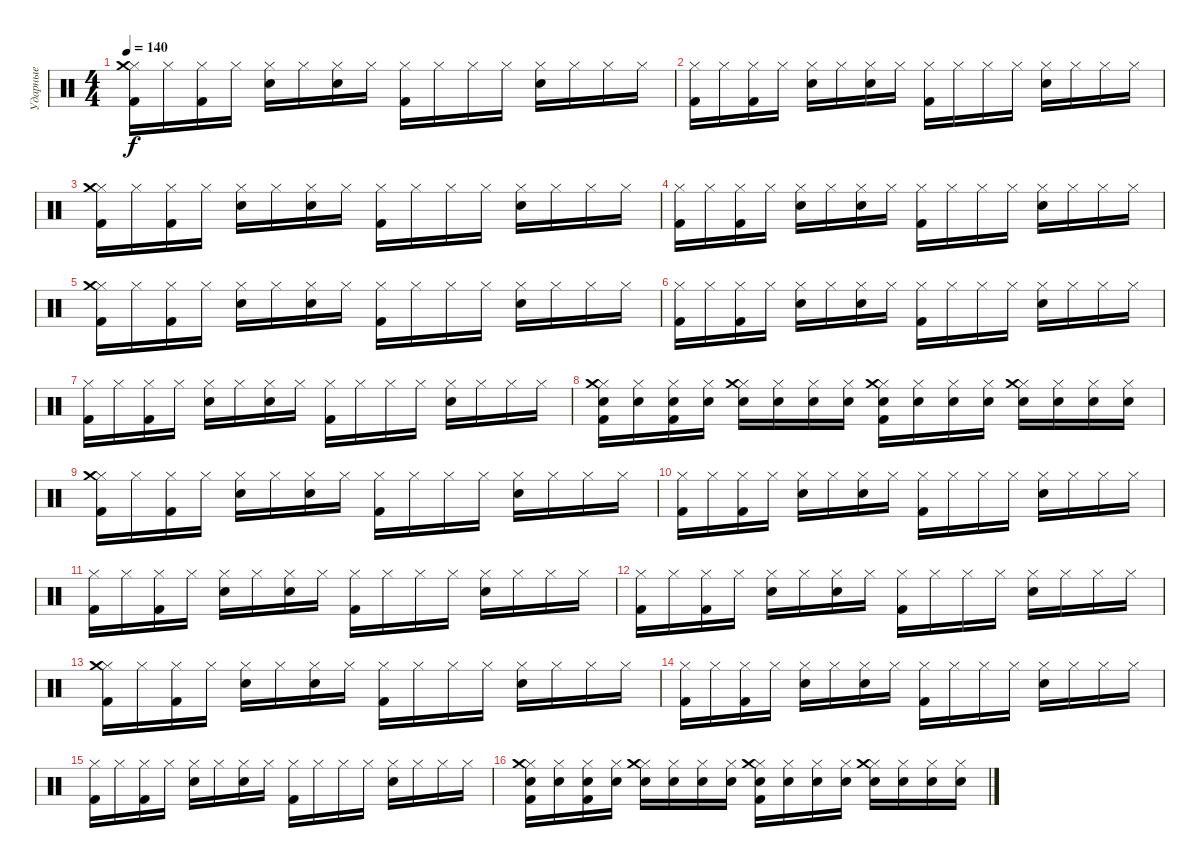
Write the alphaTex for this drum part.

\track ("Ударные" "Ударные") {instrument percussion}
\staff {score}
\articulation defaults
\ts (4 4)
\tempo 140
\clef neutral
\ks c
("Hi-Hat (closed)" "Kick (hit) 2" "Crash medium (hit)").16{dy f} "Hi-Hat (closed)".16 ("Hi-Hat (closed)" "Kick (hit) 2").16 "Hi-Hat (closed)".16 ("Hi-Hat (closed)" "Electric Snare (hit)").16 "Hi-Hat (closed)".16 ("Hi-Hat (closed)" "Electric Snare (hit)").16 "Hi-Hat (closed)".16 ("Hi-Hat (closed)" "Kick (hit) 2").16 "Hi-Hat (closed)".16 "Hi-Hat (closed)".16 "Hi-Hat (closed)".16 ("Hi-Hat (closed)" "Electric Snare (hit)").16 "Hi-Hat (closed)".16 "Hi-Hat (closed)".16 "Hi-Hat (closed)".16 |
("Hi-Hat (closed)" "Kick (hit) 2").16 "Hi-Hat (closed)".16 ("Hi-Hat (closed)" "Kick (hit) 2").16 "Hi-Hat (closed)".16 ("Hi-Hat (closed)" "Electric Snare (hit)").16 "Hi-Hat (closed)".16 ("Hi-Hat (closed)" "Electric Snare (hit)").16 "Hi-Hat (closed)".16 ("Hi-Hat (closed)" "Kick (hit) 2").16 "Hi-Hat (closed)".16 "Hi-Hat (closed)".16 "Hi-Hat (closed)".16 ("Hi-Hat (closed)" "Electric Snare (hit)").16 "Hi-Hat (closed)".16 "Hi-Hat (closed)".16 "Hi-Hat (closed)".16 |
("Hi-Hat (closed)" "Kick (hit) 2" "Crash medium (hit)").16 "Hi-Hat (closed)".16 ("Hi-Hat (closed)" "Kick (hit) 2").16 "Hi-Hat (closed)".16 ("Hi-Hat (closed)" "Electric Snare (hit)").16 "Hi-Hat (closed)".16 ("Hi-Hat (closed)" "Electric Snare (hit)").16 "Hi-Hat (closed)".16 ("Hi-Hat (closed)" "Kick (hit) 2").16 "Hi-Hat (closed)".16 "Hi-Hat (closed)".16 "Hi-Hat (closed)".16 ("Hi-Hat (closed)" "Electric Snare (hit)").16 "Hi-Hat (closed)".16 "Hi-Hat (closed)".16 "Hi-Hat (closed)".16 |
("Hi-Hat (closed)" "Kick (hit) 2").16 "Hi-Hat (closed)".16 ("Hi-Hat (closed)" "Kick (hit) 2").16 "Hi-Hat (closed)".16 ("Hi-Hat (closed)" "Electric Snare (hit)").16 "Hi-Hat (closed)".16 ("Hi-Hat (closed)" "Electric Snare (hit)").16 "Hi-Hat (closed)".16 ("Hi-Hat (closed)" "Kick (hit) 2").16 "Hi-Hat (closed)".16 "Hi-Hat (closed)".16 "Hi-Hat (closed)".16 ("Hi-Hat (closed)" "Electric Snare (hit)").16 "Hi-Hat (closed)".16 "Hi-Hat (closed)".16 "Hi-Hat (closed)".16 |
("Hi-Hat (closed)" "Kick (hit) 2" "Crash medium (hit)").16 "Hi-Hat (closed)".16 ("Hi-Hat (closed)" "Kick (hit) 2").16 "Hi-Hat (closed)".16 ("Hi-Hat (closed)" "Electric Snare (hit)").16 "Hi-Hat (closed)".16 ("Hi-Hat (closed)" "Electric Snare (hit)").16 "Hi-Hat (closed)".16 ("Hi-Hat (closed)" "Kick (hit) 2").16 "Hi-Hat (closed)".16 "Hi-Hat (closed)".16 "Hi-Hat (closed)".16 ("Hi-Hat (closed)" "Electric Snare (hit)").16 "Hi-Hat (closed)".16 "Hi-Hat (closed)".16 "Hi-Hat (closed)".16 |
("Hi-Hat (closed)" "Kick (hit) 2").16 "Hi-Hat (closed)".16 ("Hi-Hat (closed)" "Kick (hit) 2").16 "Hi-Hat (closed)".16 ("Hi-Hat (closed)" "Electric Snare (hit)").16 "Hi-Hat (closed)".16 ("Hi-Hat (closed)" "Electric Snare (hit)").16 "Hi-Hat (closed)".16 ("Hi-Hat (closed)" "Kick (hit) 2").16 "Hi-Hat (closed)".16 "Hi-Hat (closed)".16 "Hi-Hat (closed)".16 ("Hi-Hat (closed)" "Electric Snare (hit)").16 "Hi-Hat (closed)".16 "Hi-Hat (closed)".16 "Hi-Hat (closed)".16 |
("Hi-Hat (closed)" "Kick (hit) 2").16 "Hi-Hat (closed)".16 ("Hi-Hat (closed)" "Kick (hit) 2").16 "Hi-Hat (closed)".16 ("Hi-Hat (closed)" "Electric Snare (hit)").16 "Hi-Hat (closed)".16 ("Hi-Hat (closed)" "Electric Snare (hit)").16 "Hi-Hat (closed)".16 ("Hi-Hat (closed)" "Kick (hit) 2").16 "Hi-Hat (closed)".16 "Hi-Hat (closed)".16 "Hi-Hat (closed)".16 ("Hi-Hat (closed)" "Electric Snare (hit)").16 "Hi-Hat (closed)".16 "Hi-Hat (closed)".16 "Hi-Hat (closed)".16 |
("Hi-Hat (closed)" "Kick (hit) 2" "Electric Snare (hit)" "Crash medium (hit)").16 ("Hi-Hat (closed)" "Electric Snare (hit)").16 ("Hi-Hat (closed)" "Kick (hit) 2" "Electric Snare (hit)").16 ("Hi-Hat (closed)" "Electric Snare (hit)").16 ("Hi-Hat (closed)" "Electric Snare (hit)" "Crash medium (hit)").16 ("Hi-Hat (closed)" "Electric Snare (hit)").16 ("Hi-Hat (closed)" "Electric Snare (hit)").16 ("Hi-Hat (closed)" "Electric Snare (hit)").16 ("Hi-Hat (closed)" "Electric Snare (hit)" "Kick (hit) 2" "Crash medium (hit)").16 ("Hi-Hat (closed)" "Electric Snare (hit)").16 ("Hi-Hat (closed)" "Electric Snare (hit)").16 ("Hi-Hat (closed)" "Electric Snare (hit)").16 ("Hi-Hat (closed)" "Electric Snare (hit)" "Crash medium (hit)").16 ("Hi-Hat (closed)" "Electric Snare (hit)").16 ("Hi-Hat (closed)" "Electric Snare (hit)").16 ("Hi-Hat (closed)" "Electric Snare (hit)").16 |
("Hi-Hat (closed)" "Kick (hit) 2" "Crash medium (hit)").16 "Hi-Hat (closed)".16 ("Hi-Hat (closed)" "Kick (hit) 2").16 "Hi-Hat (closed)".16 ("Hi-Hat (closed)" "Electric Snare (hit)").16 "Hi-Hat (closed)".16 ("Hi-Hat (closed)" "Electric Snare (hit)").16 "Hi-Hat (closed)".16 ("Hi-Hat (closed)" "Kick (hit) 2").16 "Hi-Hat (closed)".16 "Hi-Hat (closed)".16 "Hi-Hat (closed)".16 ("Hi-Hat (closed)" "Electric Snare (hit)").16 "Hi-Hat (closed)".16 "Hi-Hat (closed)".16 "Hi-Hat (closed)".16 |
("Hi-Hat (closed)" "Kick (hit) 2").16 "Hi-Hat (closed)".16 ("Hi-Hat (closed)" "Kick (hit) 2").16 "Hi-Hat (closed)".16 ("Hi-Hat (closed)" "Electric Snare (hit)").16 "Hi-Hat (closed)".16 ("Hi-Hat (closed)" "Electric Snare (hit)").16 "Hi-Hat (closed)".16 ("Hi-Hat (closed)" "Kick (hit) 2").16 "Hi-Hat (closed)".16 "Hi-Hat (closed)".16 "Hi-Hat (closed)".16 ("Hi-Hat (closed)" "Electric Snare (hit)").16 "Hi-Hat (closed)".16 "Hi-Hat (closed)".16 "Hi-Hat (closed)".16 |
("Hi-Hat (closed)" "Kick (hit) 2").16 "Hi-Hat (closed)".16 ("Hi-Hat (closed)" "Kick (hit) 2").16 "Hi-Hat (closed)".16 ("Hi-Hat (closed)" "Electric Snare (hit)").16 "Hi-Hat (closed)".16 ("Hi-Hat (closed)" "Electric Snare (hit)").16 "Hi-Hat (closed)".16 ("Hi-Hat (closed)" "Kick (hit) 2").16 "Hi-Hat (closed)".16 "Hi-Hat (closed)".16 "Hi-Hat (closed)".16 ("Hi-Hat (closed)" "Electric Snare (hit)").16 "Hi-Hat (closed)".16 "Hi-Hat (closed)".16 "Hi-Hat (closed)".16 |
("Hi-Hat (closed)" "Kick (hit) 2").16 "Hi-Hat (closed)".16 ("Hi-Hat (closed)" "Kick (hit) 2").16 "Hi-Hat (closed)".16 ("Hi-Hat (closed)" "Electric Snare (hit)").16 "Hi-Hat (closed)".16 ("Hi-Hat (closed)" "Electric Snare (hit)").16 "Hi-Hat (closed)".16 ("Hi-Hat (closed)" "Kick (hit) 2").16 "Hi-Hat (closed)".16 "Hi-Hat (closed)".16 "Hi-Hat (closed)".16 ("Hi-Hat (closed)" "Electric Snare (hit)").16 "Hi-Hat (closed)".16 "Hi-Hat (closed)".16 "Hi-Hat (closed)".16 |
("Hi-Hat (closed)" "Kick (hit) 2" "Crash medium (hit)").16 "Hi-Hat (closed)".16 ("Hi-Hat (closed)" "Kick (hit) 2").16 "Hi-Hat (closed)".16 ("Hi-Hat (closed)" "Electric Snare (hit)").16 "Hi-Hat (closed)".16 ("Hi-Hat (closed)" "Electric Snare (hit)").16 "Hi-Hat (closed)".16 ("Hi-Hat (closed)" "Kick (hit) 2").16 "Hi-Hat (closed)".16 "Hi-Hat (closed)".16 "Hi-Hat (closed)".16 ("Hi-Hat (closed)" "Electric Snare (hit)").16 "Hi-Hat (closed)".16 "Hi-Hat (closed)".16 "Hi-Hat (closed)".16 |
("Hi-Hat (closed)" "Kick (hit) 2").16 "Hi-Hat (closed)".16 ("Hi-Hat (closed)" "Kick (hit) 2").16 "Hi-Hat (closed)".16 ("Hi-Hat (closed)" "Electric Snare (hit)").16 "Hi-Hat (closed)".16 ("Hi-Hat (closed)" "Electric Snare (hit)").16 "Hi-Hat (closed)".16 ("Hi-Hat (closed)" "Kick (hit) 2").16 "Hi-Hat (closed)".16 "Hi-Hat (closed)".16 "Hi-Hat (closed)".16 ("Hi-Hat (closed)" "Electric Snare (hit)").16 "Hi-Hat (closed)".16 "Hi-Hat (closed)".16 "Hi-Hat (closed)".16 |
("Hi-Hat (closed)" "Kick (hit) 2").16 "Hi-Hat (closed)".16 ("Hi-Hat (closed)" "Kick (hit) 2").16 "Hi-Hat (closed)".16 ("Hi-Hat (closed)" "Electric Snare (hit)").16 "Hi-Hat (closed)".16 ("Hi-Hat (closed)" "Electric Snare (hit)").16 "Hi-Hat (closed)".16 ("Hi-Hat (closed)" "Kick (hit) 2").16 "Hi-Hat (closed)".16 "Hi-Hat (closed)".16 "Hi-Hat (closed)".16 ("Hi-Hat (closed)" "Electric Snare (hit)").16 "Hi-Hat (closed)".16 "Hi-Hat (closed)".16 "Hi-Hat (closed)".16 |
("Hi-Hat (closed)" "Kick (hit) 2" "Electric Snare (hit)" "Crash medium (hit)").16 ("Hi-Hat (closed)" "Electric Snare (hit)").16 ("Hi-Hat (closed)" "Kick (hit) 2" "Electric Snare (hit)").16 ("Hi-Hat (closed)" "Electric Snare (hit)").16 ("Hi-Hat (closed)" "Electric Snare (hit)" "Crash medium (hit)").16 ("Hi-Hat (closed)" "Electric Snare (hit)").16 ("Hi-Hat (closed)" "Electric Snare (hit)").16 ("Hi-Hat (closed)" "Electric Snare (hit)").16 ("Hi-Hat (closed)" "Electric Snare (hit)" "Kick (hit) 2" "Crash medium (hit)").16 ("Hi-Hat (closed)" "Electric Snare (hit)").16 ("Hi-Hat (closed)" "Electric Snare (hit)").16 ("Hi-Hat (closed)" "Electric Snare (hit)").16 ("Hi-Hat (closed)" "Electric Snare (hit)" "Crash medium (hit)").16 ("Hi-Hat (closed)" "Electric Snare (hit)").16 ("Hi-Hat (closed)" "Electric Snare (hit)").16 ("Hi-Hat (closed)" "Electric Snare (hit)").16
